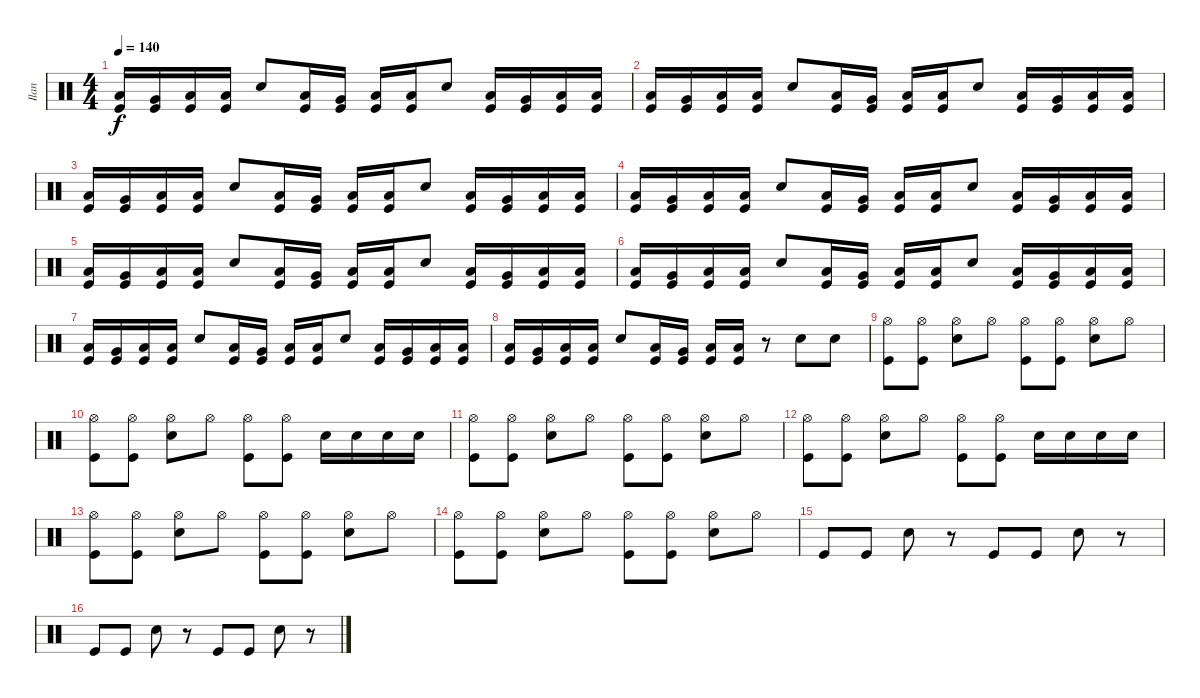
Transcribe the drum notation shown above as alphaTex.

\track ("Ilan" "Ilan") {instrument percussion}
\staff {score}
\articulation defaults
\ts (4 4)
\tempo 140
\clef neutral
\ks c
("Low Floor Tom (hit)" "Kick (hit)").16{dy f} ("Very Low Tom (hit)" "Kick (hit)").16 ("Low Floor Tom (hit)" "Kick (hit)").16 ("Low Tom (hit)" "Kick (hit)").16 "Electric Snare (hit)".8 ("Low Floor Tom (hit)" "Kick (hit)").16 ("Very Low Tom (hit)" "Kick (hit)").16 ("Low Floor Tom (hit)" "Kick (hit)").16 ("Low Tom (hit)" "Kick (hit)").16 "Electric Snare (hit)".8 ("Low Floor Tom (hit)" "Kick (hit)").16 ("Very Low Tom (hit)" "Kick (hit)").16 ("Low Floor Tom (hit)" "Kick (hit)").16 ("Low Tom (hit)" "Kick (hit)").16 |
("Low Floor Tom (hit)" "Kick (hit)").16 ("Very Low Tom (hit)" "Kick (hit)").16 ("Low Floor Tom (hit)" "Kick (hit)").16 ("Low Tom (hit)" "Kick (hit)").16 "Electric Snare (hit)".8 ("Low Floor Tom (hit)" "Kick (hit)").16 ("Very Low Tom (hit)" "Kick (hit)").16 ("Low Floor Tom (hit)" "Kick (hit)").16 ("Low Tom (hit)" "Kick (hit)").16 "Electric Snare (hit)".8 ("Low Floor Tom (hit)" "Kick (hit)").16 ("Very Low Tom (hit)" "Kick (hit)").16 ("Low Floor Tom (hit)" "Kick (hit)").16 ("Low Tom (hit)" "Kick (hit)").16 |
("Low Floor Tom (hit)" "Kick (hit)").16 ("Very Low Tom (hit)" "Kick (hit)").16 ("Low Floor Tom (hit)" "Kick (hit)").16 ("Low Tom (hit)" "Kick (hit)").16 "Electric Snare (hit)".8 ("Low Floor Tom (hit)" "Kick (hit)").16 ("Very Low Tom (hit)" "Kick (hit)").16 ("Low Floor Tom (hit)" "Kick (hit)").16 ("Low Tom (hit)" "Kick (hit)").16 "Electric Snare (hit)".8 ("Low Floor Tom (hit)" "Kick (hit)").16 ("Very Low Tom (hit)" "Kick (hit)").16 ("Low Floor Tom (hit)" "Kick (hit)").16 ("Low Tom (hit)" "Kick (hit)").16 |
("Low Floor Tom (hit)" "Kick (hit)").16 ("Very Low Tom (hit)" "Kick (hit)").16 ("Low Floor Tom (hit)" "Kick (hit)").16 ("Low Tom (hit)" "Kick (hit)").16 "Electric Snare (hit)".8 ("Low Floor Tom (hit)" "Kick (hit)").16 ("Very Low Tom (hit)" "Kick (hit)").16 ("Low Floor Tom (hit)" "Kick (hit)").16 ("Low Tom (hit)" "Kick (hit)").16 "Electric Snare (hit)".8 ("Low Floor Tom (hit)" "Kick (hit)").16 ("Very Low Tom (hit)" "Kick (hit)").16 ("Low Floor Tom (hit)" "Kick (hit)").16 ("Low Tom (hit)" "Kick (hit)").16 |
("Low Floor Tom (hit)" "Kick (hit)").16 ("Very Low Tom (hit)" "Kick (hit)").16 ("Low Floor Tom (hit)" "Kick (hit)").16 ("Low Tom (hit)" "Kick (hit)").16 "Electric Snare (hit)".8 ("Low Floor Tom (hit)" "Kick (hit)").16 ("Very Low Tom (hit)" "Kick (hit)").16 ("Low Floor Tom (hit)" "Kick (hit)").16 ("Low Tom (hit)" "Kick (hit)").16 "Electric Snare (hit)".8 ("Low Floor Tom (hit)" "Kick (hit)").16 ("Very Low Tom (hit)" "Kick (hit)").16 ("Low Floor Tom (hit)" "Kick (hit)").16 ("Low Tom (hit)" "Kick (hit)").16 |
("Low Floor Tom (hit)" "Kick (hit)").16 ("Very Low Tom (hit)" "Kick (hit)").16 ("Low Floor Tom (hit)" "Kick (hit)").16 ("Low Tom (hit)" "Kick (hit)").16 "Electric Snare (hit)".8 ("Low Floor Tom (hit)" "Kick (hit)").16 ("Very Low Tom (hit)" "Kick (hit)").16 ("Low Floor Tom (hit)" "Kick (hit)").16 ("Low Tom (hit)" "Kick (hit)").16 "Electric Snare (hit)".8 ("Low Floor Tom (hit)" "Kick (hit)").16 ("Very Low Tom (hit)" "Kick (hit)").16 ("Low Floor Tom (hit)" "Kick (hit)").16 ("Low Tom (hit)" "Kick (hit)").16 |
("Low Floor Tom (hit)" "Kick (hit)").16 ("Very Low Tom (hit)" "Kick (hit)").16 ("Low Floor Tom (hit)" "Kick (hit)").16 ("Low Tom (hit)" "Kick (hit)").16 "Electric Snare (hit)".8 ("Low Floor Tom (hit)" "Kick (hit)").16 ("Very Low Tom (hit)" "Kick (hit)").16 ("Low Floor Tom (hit)" "Kick (hit)").16 ("Low Tom (hit)" "Kick (hit)").16 "Electric Snare (hit)".8 ("Low Floor Tom (hit)" "Kick (hit)").16 ("Very Low Tom (hit)" "Kick (hit)").16 ("Low Floor Tom (hit)" "Kick (hit)").16 ("Low Tom (hit)" "Kick (hit)").16 |
("Low Floor Tom (hit)" "Kick (hit)").16 ("Very Low Tom (hit)" "Kick (hit)").16 ("Low Floor Tom (hit)" "Kick (hit)").16 ("Low Tom (hit)" "Kick (hit)").16 "Electric Snare (hit)".8 ("Low Floor Tom (hit)" "Kick (hit)").16 ("Very Low Tom (hit)" "Kick (hit)").16 ("Low Floor Tom (hit)" "Kick (hit)").16 ("Low Tom (hit)" "Kick (hit)").16 r.8 "Electric Snare (hit)".8 "Electric Snare (hit)".8 |
("Hi-Hat (open)" "Kick (hit)").8 ("Hi-Hat (open)" "Kick (hit)").8 ("Hi-Hat (open)" "Electric Snare (hit)").8 "Hi-Hat (open)".8 ("Hi-Hat (open)" "Kick (hit)").8 ("Hi-Hat (open)" "Kick (hit)").8 ("Hi-Hat (open)" "Electric Snare (hit)").8 "Hi-Hat (open)".8 |
("Hi-Hat (open)" "Kick (hit)").8 ("Hi-Hat (open)" "Kick (hit)").8 ("Hi-Hat (open)" "Electric Snare (hit)").8 "Hi-Hat (open)".8 ("Hi-Hat (open)" "Kick (hit)").8 ("Hi-Hat (open)" "Kick (hit)").8 "Electric Snare (hit)".16 "Electric Snare (hit)".16 "Electric Snare (hit)".16 "Electric Snare (hit)".16 |
("Hi-Hat (open)" "Kick (hit)").8 ("Hi-Hat (open)" "Kick (hit)").8 ("Hi-Hat (open)" "Electric Snare (hit)").8 "Hi-Hat (open)".8 ("Hi-Hat (open)" "Kick (hit)").8 ("Hi-Hat (open)" "Kick (hit)").8 ("Hi-Hat (open)" "Electric Snare (hit)").8 "Hi-Hat (open)".8 |
("Hi-Hat (open)" "Kick (hit)").8 ("Hi-Hat (open)" "Kick (hit)").8 ("Hi-Hat (open)" "Electric Snare (hit)").8 "Hi-Hat (open)".8 ("Hi-Hat (open)" "Kick (hit)").8 ("Hi-Hat (open)" "Kick (hit)").8 "Electric Snare (hit)".16 "Electric Snare (hit)".16 "Electric Snare (hit)".16 "Electric Snare (hit)".16 |
("Hi-Hat (open)" "Kick (hit)").8 ("Hi-Hat (open)" "Kick (hit)").8 ("Hi-Hat (open)" "Electric Snare (hit)").8 "Hi-Hat (open)".8 ("Hi-Hat (open)" "Kick (hit)").8 ("Hi-Hat (open)" "Kick (hit)").8 ("Hi-Hat (open)" "Electric Snare (hit)").8 "Hi-Hat (open)".8 |
("Hi-Hat (open)" "Kick (hit)").8 ("Hi-Hat (open)" "Kick (hit)").8 ("Hi-Hat (open)" "Electric Snare (hit)").8 "Hi-Hat (open)".8 ("Hi-Hat (open)" "Kick (hit)").8 ("Hi-Hat (open)" "Kick (hit)").8 ("Hi-Hat (open)" "Electric Snare (hit)").8 "Hi-Hat (open)".8 |
"Kick (hit)".8 "Kick (hit)".8 "Electric Snare (hit)".8 r.8 "Kick (hit)".8 "Kick (hit)".8 "Electric Snare (hit)".8 r.8 |
"Kick (hit)".8 "Kick (hit)".8 "Electric Snare (hit)".8 r.8 "Kick (hit)".8 "Kick (hit)".8 "Electric Snare (hit)".8 r.8
